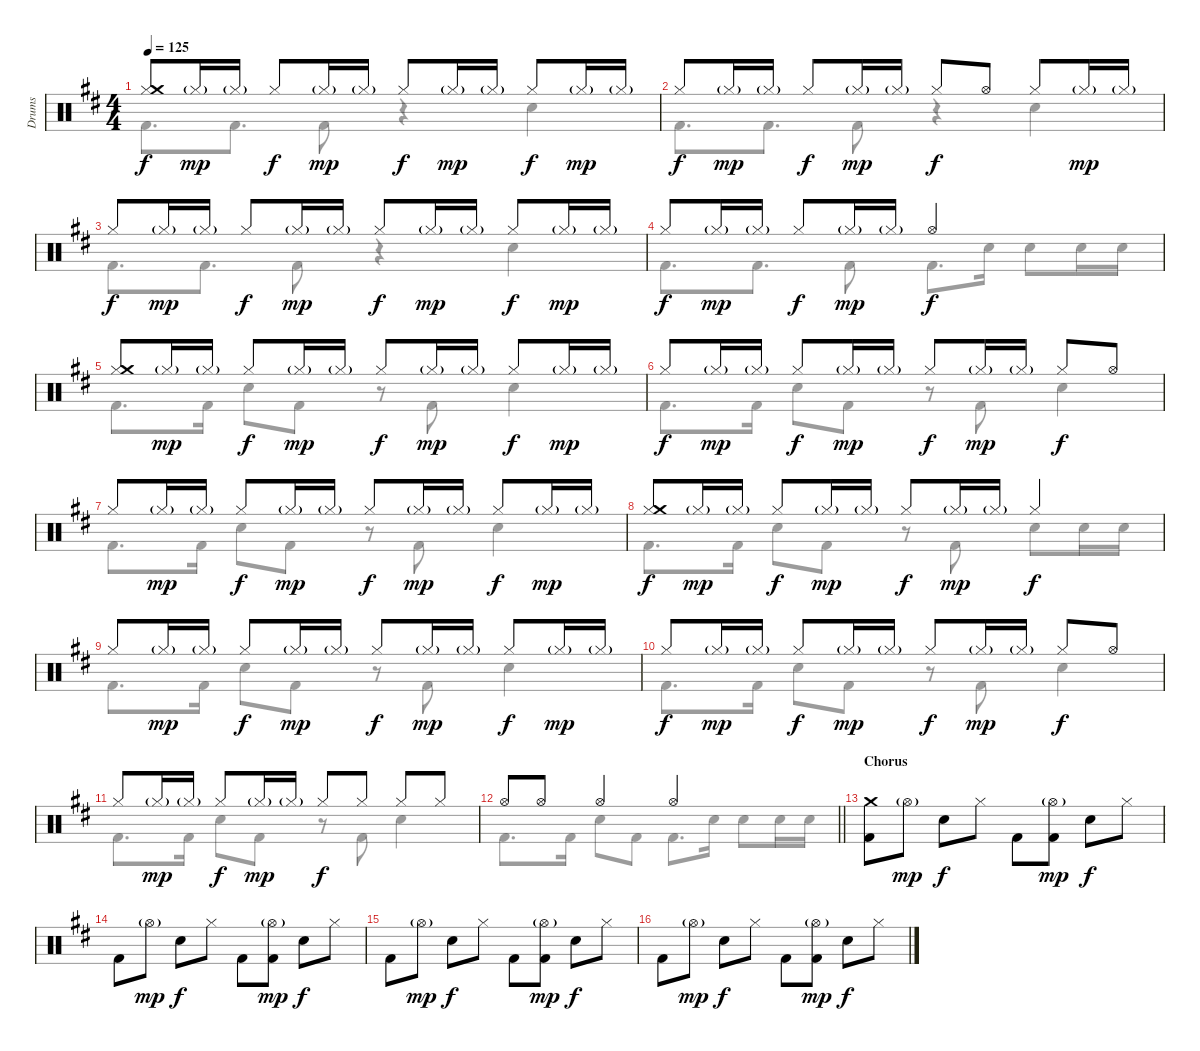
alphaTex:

\track ("Drums" "Drums") {instrument percussion}
\staff {score}
\articulation defaults
\voice
\ts (4 4)
\tempo 125
\clef neutral
\ks bminor
("Hi-Hat (closed)" "Crash medium (hit)").8{dy f} "Hi-Hat (closed)"{g}.16{dy mp} "Hi-Hat (closed)"{g}.16 "Hi-Hat (closed)".8{dy f} "Hi-Hat (closed)"{g}.16{dy mp} "Hi-Hat (closed)"{g}.16 "Hi-Hat (closed)".8{dy f} "Hi-Hat (closed)"{g}.16{dy mp} "Hi-Hat (closed)"{g}.16 "Hi-Hat (closed)".8{dy f} "Hi-Hat (closed)"{g}.16{dy mp} "Hi-Hat (closed)"{g}.16 |
"Hi-Hat (closed)".8{dy f} "Hi-Hat (closed)"{g}.16{dy mp} "Hi-Hat (closed)"{g}.16 "Hi-Hat (closed)".8{dy f} "Hi-Hat (closed)"{g}.16{dy mp} "Hi-Hat (closed)"{g}.16 "Hi-Hat (closed)".8{dy f} "Hi-Hat (open)".8 "Hi-Hat (closed)".8 "Hi-Hat (closed)"{g}.16{dy mp} "Hi-Hat (closed)"{g}.16 |
"Hi-Hat (closed)".8{dy f} "Hi-Hat (closed)"{g}.16{dy mp} "Hi-Hat (closed)"{g}.16 "Hi-Hat (closed)".8{dy f} "Hi-Hat (closed)"{g}.16{dy mp} "Hi-Hat (closed)"{g}.16 "Hi-Hat (closed)".8{dy f} "Hi-Hat (closed)"{g}.16{dy mp} "Hi-Hat (closed)"{g}.16 "Hi-Hat (closed)".8{dy f} "Hi-Hat (closed)"{g}.16{dy mp} "Hi-Hat (closed)"{g}.16 |
"Hi-Hat (closed)".8{dy f} "Hi-Hat (closed)"{g}.16{dy mp} "Hi-Hat (closed)"{g}.16 "Hi-Hat (closed)".8{dy f} "Hi-Hat (closed)"{g}.16{dy mp} "Hi-Hat (closed)"{g}.16 "Hi-Hat (open)".2{dy f} |
("Hi-Hat (closed)" "Crash medium (hit)").8 "Hi-Hat (closed)"{g}.16{dy mp} "Hi-Hat (closed)"{g}.16 "Hi-Hat (closed)".8{dy f} "Hi-Hat (closed)"{g}.16{dy mp} "Hi-Hat (closed)"{g}.16 "Hi-Hat (closed)".8{dy f} "Hi-Hat (closed)"{g}.16{dy mp} "Hi-Hat (closed)"{g}.16 "Hi-Hat (closed)".8{dy f} "Hi-Hat (closed)"{g}.16{dy mp} "Hi-Hat (closed)"{g}.16 |
"Hi-Hat (closed)".8{dy f} "Hi-Hat (closed)"{g}.16{dy mp} "Hi-Hat (closed)"{g}.16 "Hi-Hat (closed)".8{dy f} "Hi-Hat (closed)"{g}.16{dy mp} "Hi-Hat (closed)"{g}.16 "Hi-Hat (closed)".8{dy f} "Hi-Hat (closed)"{g}.16{dy mp} "Hi-Hat (closed)"{g}.16 "Hi-Hat (closed)".8{dy f} "Hi-Hat (open)".8 |
"Hi-Hat (closed)".8 "Hi-Hat (closed)"{g}.16{dy mp} "Hi-Hat (closed)"{g}.16 "Hi-Hat (closed)".8{dy f} "Hi-Hat (closed)"{g}.16{dy mp} "Hi-Hat (closed)"{g}.16 "Hi-Hat (closed)".8{dy f} "Hi-Hat (closed)"{g}.16{dy mp} "Hi-Hat (closed)"{g}.16 "Hi-Hat (closed)".8{dy f} "Hi-Hat (closed)"{g}.16{dy mp} "Hi-Hat (closed)"{g}.16 |
("Hi-Hat (closed)" "Crash medium (hit)").8{dy f} "Hi-Hat (closed)"{g}.16{dy mp} "Hi-Hat (closed)"{g}.16 "Hi-Hat (closed)".8{dy f} "Hi-Hat (closed)"{g}.16{dy mp} "Hi-Hat (closed)"{g}.16 "Hi-Hat (closed)".8{dy f} "Hi-Hat (closed)"{g}.16{dy mp} "Hi-Hat (closed)"{g}.16 "Hi-Hat (closed)".4{dy f} |
"Hi-Hat (closed)".8 "Hi-Hat (closed)"{g}.16{dy mp} "Hi-Hat (closed)"{g}.16 "Hi-Hat (closed)".8{dy f} "Hi-Hat (closed)"{g}.16{dy mp} "Hi-Hat (closed)"{g}.16 "Hi-Hat (closed)".8{dy f} "Hi-Hat (closed)"{g}.16{dy mp} "Hi-Hat (closed)"{g}.16 "Hi-Hat (closed)".8{dy f} "Hi-Hat (closed)"{g}.16{dy mp} "Hi-Hat (closed)"{g}.16 |
"Hi-Hat (closed)".8{dy f} "Hi-Hat (closed)"{g}.16{dy mp} "Hi-Hat (closed)"{g}.16 "Hi-Hat (closed)".8{dy f} "Hi-Hat (closed)"{g}.16{dy mp} "Hi-Hat (closed)"{g}.16 "Hi-Hat (closed)".8{dy f} "Hi-Hat (closed)"{g}.16{dy mp} "Hi-Hat (closed)"{g}.16 "Hi-Hat (closed)".8{dy f} "Hi-Hat (open)".8 |
"Hi-Hat (closed)".8 "Hi-Hat (closed)"{g}.16{dy mp} "Hi-Hat (closed)"{g}.16 "Hi-Hat (closed)".8{dy f} "Hi-Hat (closed)"{g}.16{dy mp} "Hi-Hat (closed)"{g}.16 "Hi-Hat (closed)".8{dy f} "Hi-Hat (closed)".8 "Hi-Hat (closed)".8 "Hi-Hat (closed)".8 |
\barLineRight lightlight "Hi-Hat (open)".8 "Hi-Hat (open)".8 "Hi-Hat (open)".4 "Hi-Hat (open)".2
|
\section ("" "Chorus")
("Crash medium (hit)" "Kick (hit) 2").8 "Hi-Hat (open)"{g}.8{dy mp} "Electric Snare (hit)".8{dy f} "Hi-Hat (closed)".8 "Kick (hit) 2".8 ("Hi-Hat (open)"{g} "Kick (hit) 2").8{dy mp} "Electric Snare (hit)".8{dy f} "Hi-Hat (closed)".8 |
"Kick (hit) 2".8 "Hi-Hat (open)"{g}.8{dy mp} "Electric Snare (hit)".8{dy f} "Hi-Hat (closed)".8 "Kick (hit) 2".8 ("Hi-Hat (open)"{g} "Kick (hit) 2").8{dy mp} "Electric Snare (hit)".8{dy f} "Hi-Hat (closed)".8 |
"Kick (hit) 2".8 "Hi-Hat (open)"{g}.8{dy mp} "Electric Snare (hit)".8{dy f} "Hi-Hat (closed)".8 "Kick (hit) 2".8 ("Hi-Hat (open)"{g} "Kick (hit) 2").8{dy mp} "Electric Snare (hit)".8{dy f} "Hi-Hat (closed)".8 |
"Kick (hit) 2".8 "Hi-Hat (open)"{g}.8{dy mp} "Electric Snare (hit)".8{dy f} "Hi-Hat (closed)".8 "Kick (hit) 2".8 ("Hi-Hat (open)"{g} "Kick (hit) 2").8{dy mp} "Electric Snare (hit)".8{dy f} "Hi-Hat (closed)".8
\voice
\clef neutral
\ottava regular
\simile none
\ks bminor "Kick (hit) 2".8{d dy f} "Kick (hit) 2".8{d} "Kick (hit) 2".8
r.4 "Electric Snare (hit)".4 |
"Kick (hit) 2".8{d} "Kick (hit) 2".8{d} "Kick (hit) 2".8 r.4 "Electric Snare (hit)".4 |
"Kick (hit) 2".8{d} "Kick (hit) 2".8{d} "Kick (hit) 2".8 r.4 "Electric Snare (hit)".4 |
"Kick (hit) 2".8{d} "Kick (hit) 2".8{d} "Kick (hit) 2".8 "Kick (hit) 2".8{d} "Electric Snare (hit)".16 "Electric Snare (hit)".8 "Electric Snare (hit)".16 "Electric Snare (hit)".16 |
"Kick (hit) 2".8{d} "Kick (hit) 2".16 "Electric Snare (hit)".8 "Kick (hit) 2".8 r.8 "Kick (hit) 2".8 "Electric Snare (hit)".4 |
"Kick (hit) 2".8{d} "Kick (hit) 2".16 "Electric Snare (hit)".8 "Kick (hit) 2".8 r.8 "Kick (hit) 2".8 "Electric Snare (hit)".4 |
"Kick (hit) 2".8{d} "Kick (hit) 2".16 "Electric Snare (hit)".8 "Kick (hit) 2".8 r.8 "Kick (hit) 2".8 "Electric Snare (hit)".4 |
"Kick (hit) 2".8{d} "Kick (hit) 2".16 "Electric Snare (hit)".8 "Kick (hit) 2".8 r.8 "Kick (hit) 2".8 "Electric Snare (hit)".8 "Electric Snare (hit)".16 "Electric Snare (hit)".16 |
"Kick (hit) 2".8{d} "Kick (hit) 2".16 "Electric Snare (hit)".8 "Kick (hit) 2".8 r.8 "Kick (hit) 2".8 "Electric Snare (hit)".4 |
"Kick (hit) 2".8{d} "Kick (hit) 2".16 "Electric Snare (hit)".8 "Kick (hit) 2".8 r.8 "Kick (hit) 2".8 "Electric Snare (hit)".4 |
"Kick (hit) 2".8{d} "Kick (hit) 2".16 "Electric Snare (hit)".8 "Kick (hit) 2".8 r.8 "Kick (hit) 2".8 "Electric Snare (hit)".4 |
\barLineRight lightlight "Kick (hit) 2".8{d} "Kick (hit) 2".16 "Electric Snare (hit)".8 "Kick (hit) 2".8 "Kick (hit) 2".8{d} "Electric Snare (hit)".16 "Electric Snare (hit)".8 "Electric Snare (hit)".16 "Electric Snare (hit)".16
|
|
|
|
